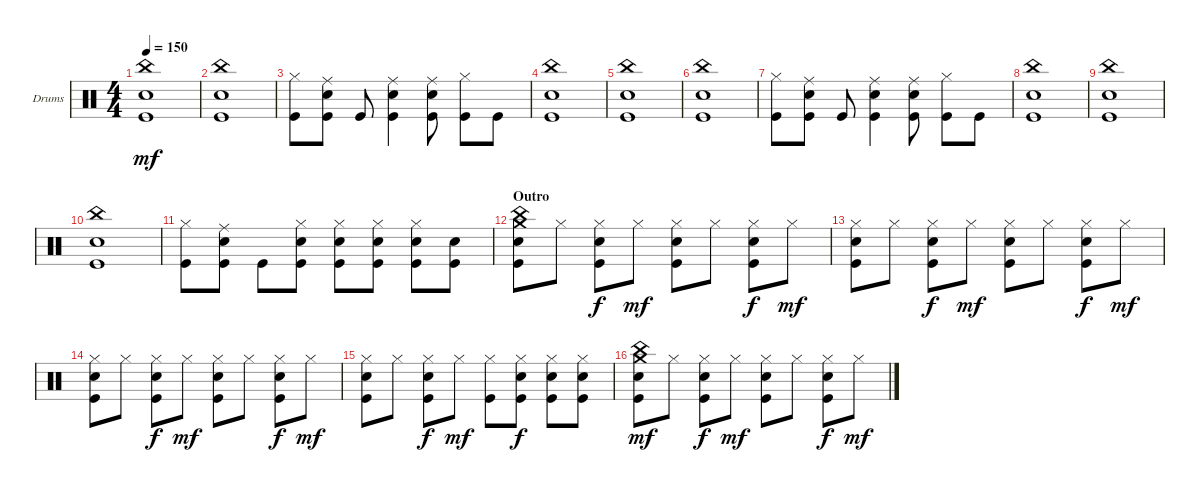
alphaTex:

\defaultSystemsLayout 4
\bracketExtendMode groupsimilarinstruments
\firstSystemTrackNameOrientation horizontal
\otherSystemsTrackNameOrientation horizontal
\track ("Drumkit" "Drums") {instrument percussion}
\staff {score}
\articulation defaults
\ts (4 4)
\tempo 150
\clef neutral
\ks c
("Kick (hit)" "Snare (hit) 2" "China (hit)").1{dy mf} |
("Kick (hit)" "Snare (hit) 2" "China (hit)").1 |
("Kick (hit)" "Hi-Hat (closed)").8 ("Kick (hit)" "Snare (hit) 2" "Ride (middle)").8 "Kick (hit)".8 ("Kick (hit)" "Snare (hit) 2" "Ride (middle)").4 ("Kick (hit)" "Snare (hit) 2" "Ride (middle)").8 ("Kick (hit)" "Hi-Hat (closed)").8 "Kick (hit)".8 |
("Kick (hit)" "Snare (hit) 2" "China (hit)").1 |
("Kick (hit)" "Snare (hit) 2" "China (hit)").1 |
("Kick (hit)" "Snare (hit) 2" "China (hit)").1 |
("Kick (hit)" "Hi-Hat (closed)").8 ("Kick (hit)" "Snare (hit) 2" "Ride (middle)").8 "Kick (hit)".8 ("Kick (hit)" "Snare (hit) 2" "Ride (middle)").4 ("Kick (hit)" "Snare (hit) 2" "Ride (middle)").8 ("Kick (hit)" "Hi-Hat (closed)").8 "Kick (hit)".8 |
("Kick (hit)" "Snare (hit) 2" "China (hit)").1 |
("Kick (hit)" "Snare (hit) 2" "China (hit)").1 |
("Kick (hit)" "Snare (hit) 2" "China (hit)").1 |
("Kick (hit)" "Hi-Hat (closed)").8 ("Kick (hit)" "Snare (hit) 2" "Ride (middle)").8 "Kick (hit)".8 ("Kick (hit)" "Snare (hit) 2" "Hi-Hat (closed)").8 ("Kick (hit)" "Snare (hit) 2" "Hi-Hat (closed)").8 ("Kick (hit)" "Hi-Hat (closed)" "Snare (hit) 2").8 ("Kick (hit)" "Hi-Hat (closed)" "Snare (hit) 2").8 ("Snare (hit) 2" "Kick (hit)").8 |
\section ("" "Outro")
("Snare (hit) 2" "Kick (hit)" "Crash medium (hit)" "China (hit)").8 "Hi-Hat (closed)".8 ("Kick (hit)" "Snare (hit) 2" "Hi-Hat (closed)").8{dy f} "Hi-Hat (closed)".8{dy mf} ("Kick (hit)" "Snare (hit) 2" "Hi-Hat (closed)").8 "Hi-Hat (closed)".8 ("Kick (hit)" "Snare (hit) 2" "Hi-Hat (closed)").8{dy f} "Hi-Hat (closed)".8{dy mf} |
("Snare (hit) 2" "Kick (hit)" "Hi-Hat (closed)").8 "Hi-Hat (closed)".8 ("Kick (hit)" "Snare (hit) 2" "Hi-Hat (closed)").8{dy f} "Hi-Hat (closed)".8{dy mf} ("Kick (hit)" "Snare (hit) 2" "Hi-Hat (closed)").8 "Hi-Hat (closed)".8 ("Kick (hit)" "Snare (hit) 2" "Hi-Hat (closed)").8{dy f} "Hi-Hat (closed)".8{dy mf} |
("Snare (hit) 2" "Kick (hit)" "Hi-Hat (closed)").8 "Hi-Hat (closed)".8 ("Kick (hit)" "Snare (hit) 2" "Hi-Hat (closed)").8{dy f} "Hi-Hat (closed)".8{dy mf} ("Kick (hit)" "Snare (hit) 2" "Hi-Hat (closed)").8 "Hi-Hat (closed)".8 ("Kick (hit)" "Snare (hit) 2" "Hi-Hat (closed)").8{dy f} "Hi-Hat (closed)".8{dy mf} |
("Snare (hit) 2" "Kick (hit)" "Hi-Hat (closed)").8 "Hi-Hat (closed)".8 ("Kick (hit)" "Snare (hit) 2" "Hi-Hat (closed)").8{dy f} "Hi-Hat (closed)".8{dy mf} ("Kick (hit)" "Hi-Hat (closed)").8 ("Kick (hit)" "Snare (hit) 2" "Hi-Hat (closed)").8{dy f} ("Kick (hit)" "Snare (hit) 2" "Hi-Hat (closed)").8 ("Kick (hit)" "Snare (hit) 2" "Hi-Hat (closed)").8 |
("Snare (hit) 2" "Kick (hit)" "Crash medium (hit)" "China (hit)").8{dy mf} "Hi-Hat (closed)".8 ("Kick (hit)" "Snare (hit) 2" "Hi-Hat (closed)").8{dy f} "Hi-Hat (closed)".8{dy mf} ("Kick (hit)" "Snare (hit) 2" "Hi-Hat (closed)").8 "Hi-Hat (closed)".8 ("Kick (hit)" "Snare (hit) 2" "Hi-Hat (closed)").8{dy f} "Hi-Hat (closed)".8{dy mf}
